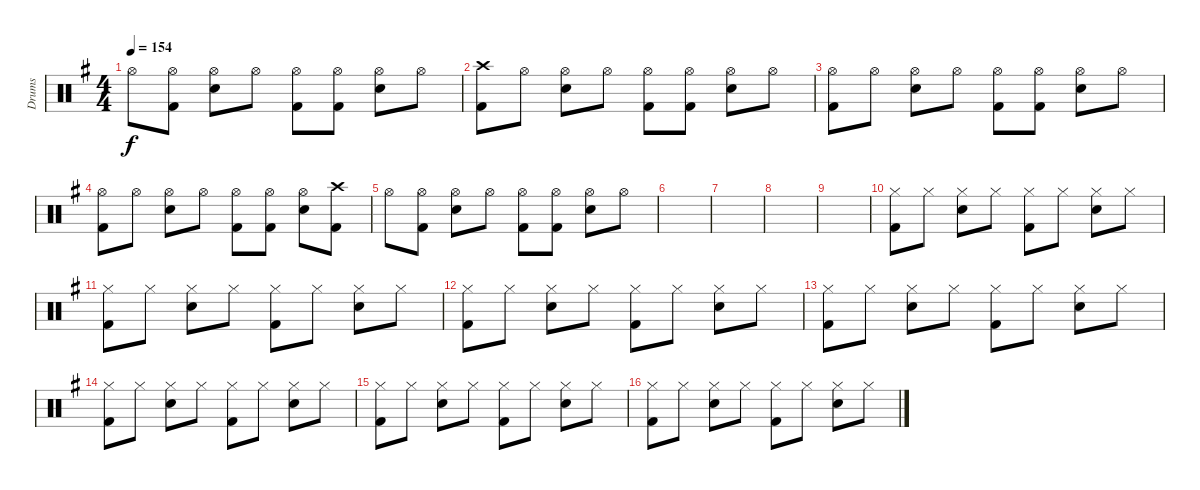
\track ("Drums" "Drums") {instrument percussion}
\staff {score}
\articulation defaults
\ts (4 4)
\tempo 154
\clef neutral
\ks g "Hi-Hat (open)".8{dy f}
("Kick (hit) 2" "Hi-Hat (open)").8 ("Hi-Hat (open)" "Electric Snare (hit)").8 "Hi-Hat (open)".8 ("Hi-Hat (open)" "Kick (hit) 2").8 ("Hi-Hat (open)" "Kick (hit) 2").8 ("Hi-Hat (open)" "Electric Snare (hit)").8 "Hi-Hat (open)".8 |
("Crash high (hit)" "Kick (hit) 2").8 "Hi-Hat (open)".8 ("Hi-Hat (open)" "Electric Snare (hit)").8 "Hi-Hat (open)".8 ("Hi-Hat (open)" "Kick (hit) 2").8 ("Kick (hit) 2" "Hi-Hat (open)").8 ("Hi-Hat (open)" "Electric Snare (hit)").8 "Hi-Hat (open)".8 |
("Hi-Hat (open)" "Kick (hit) 2").8 "Hi-Hat (open)".8 ("Hi-Hat (open)" "Electric Snare (hit)").8 "Hi-Hat (open)".8 ("Hi-Hat (open)" "Kick (hit) 2").8 ("Kick (hit) 2" "Hi-Hat (open)").8 ("Hi-Hat (open)" "Electric Snare (hit)").8 "Hi-Hat (open)".8 |
("Hi-Hat (open)" "Kick (hit) 2").8 "Hi-Hat (open)".8 ("Hi-Hat (open)" "Electric Snare (hit)").8 "Hi-Hat (open)".8 ("Hi-Hat (open)" "Kick (hit) 2").8 ("Hi-Hat (open)" "Kick (hit) 2").8 ("Hi-Hat (open)" "Electric Snare (hit)").8 ("Crash high (hit)" "Kick (hit) 2").8 |
"Hi-Hat (open)".8 ("Kick (hit) 2" "Hi-Hat (open)").8 ("Hi-Hat (open)" "Electric Snare (hit)").8 "Hi-Hat (open)".8 ("Hi-Hat (open)" "Kick (hit) 2").8 ("Hi-Hat (open)" "Kick (hit) 2").8 ("Hi-Hat (open)" "Electric Snare (hit)").8 "Hi-Hat (open)".8 |
|
|
|
|
("Hi-Hat (closed)" "Kick (hit) 2").8 "Hi-Hat (closed)".8 ("Hi-Hat (closed)" "Electric Snare (hit)").8 "Hi-Hat (closed)".8 ("Kick (hit) 2" "Hi-Hat (closed)").8 "Hi-Hat (closed)".8 ("Hi-Hat (closed)" "Electric Snare (hit)").8 "Hi-Hat (closed)".8 |
("Hi-Hat (closed)" "Kick (hit) 2").8 "Hi-Hat (closed)".8 ("Hi-Hat (closed)" "Electric Snare (hit)").8 "Hi-Hat (closed)".8 ("Kick (hit) 2" "Hi-Hat (closed)").8 "Hi-Hat (closed)".8 ("Hi-Hat (closed)" "Electric Snare (hit)").8 "Hi-Hat (closed)".8 |
("Hi-Hat (closed)" "Kick (hit) 2").8 "Hi-Hat (closed)".8 ("Hi-Hat (closed)" "Electric Snare (hit)").8 "Hi-Hat (closed)".8 ("Kick (hit) 2" "Hi-Hat (closed)").8 "Hi-Hat (closed)".8 ("Hi-Hat (closed)" "Electric Snare (hit)").8 "Hi-Hat (closed)".8 |
("Hi-Hat (closed)" "Kick (hit) 2").8 "Hi-Hat (closed)".8 ("Hi-Hat (closed)" "Electric Snare (hit)").8 "Hi-Hat (closed)".8 ("Kick (hit) 2" "Hi-Hat (closed)").8 "Hi-Hat (closed)".8 ("Hi-Hat (closed)" "Electric Snare (hit)").8 "Hi-Hat (closed)".8 |
("Hi-Hat (closed)" "Kick (hit) 2").8 "Hi-Hat (closed)".8 ("Hi-Hat (closed)" "Electric Snare (hit)").8 "Hi-Hat (closed)".8 ("Kick (hit) 2" "Hi-Hat (closed)").8 "Hi-Hat (closed)".8 ("Hi-Hat (closed)" "Electric Snare (hit)").8 "Hi-Hat (closed)".8 |
("Hi-Hat (closed)" "Kick (hit) 2").8 "Hi-Hat (closed)".8 ("Hi-Hat (closed)" "Electric Snare (hit)").8 "Hi-Hat (closed)".8 ("Kick (hit) 2" "Hi-Hat (closed)").8 "Hi-Hat (closed)".8 ("Hi-Hat (closed)" "Electric Snare (hit)").8 "Hi-Hat (closed)".8 |
("Hi-Hat (closed)" "Kick (hit) 2").8 "Hi-Hat (closed)".8 ("Hi-Hat (closed)" "Electric Snare (hit)").8 "Hi-Hat (closed)".8 ("Kick (hit) 2" "Hi-Hat (closed)").8 "Hi-Hat (closed)".8 ("Hi-Hat (closed)" "Electric Snare (hit)").8 "Hi-Hat (closed)".8
